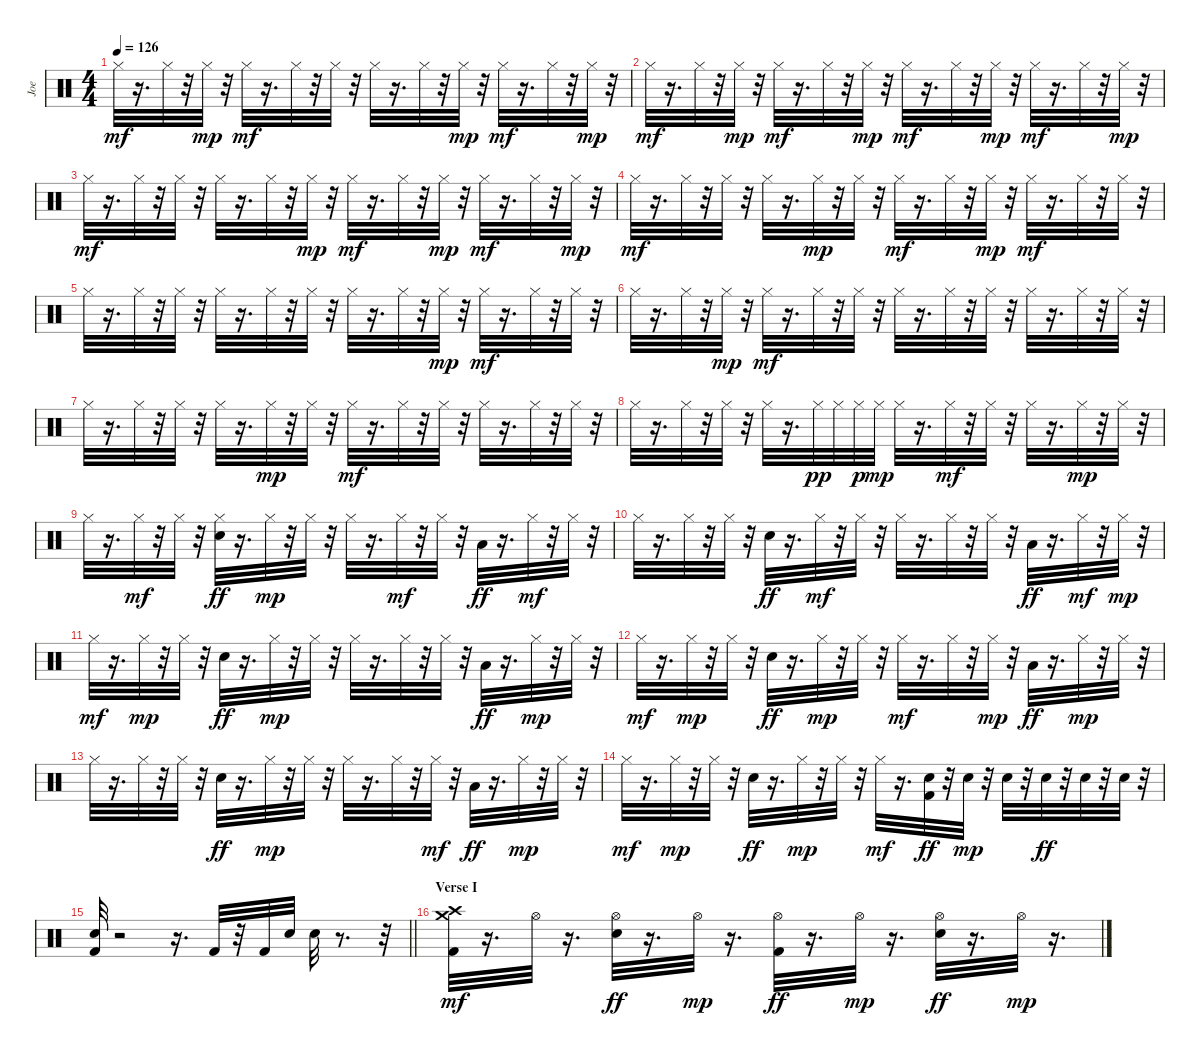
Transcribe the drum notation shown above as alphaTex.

\track ("Joe" "Joe") {instrument percussion}
\staff {score}
\articulation defaults
\ts (4 4)
\tempo 126
\clef neutral
\ks c "Hi-Hat (closed)".32{dy mf}
r.16{d} "Hi-Hat (closed)".32 r.32 "Hi-Hat (closed)".32{dy mp} r.32 "Hi-Hat (closed)".32{dy mf} r.16{d} "Hi-Hat (closed)".32 r.32 "Hi-Hat (closed)".32 r.32 "Hi-Hat (closed)".32 r.16{d} "Hi-Hat (closed)".32 r.32 "Hi-Hat (closed)".32{dy mp} r.32 "Hi-Hat (closed)".32{dy mf} r.16{d} "Hi-Hat (closed)".32 r.32 "Hi-Hat (closed)".32{dy mp} r.32 |
"Hi-Hat (closed)".32{dy mf} r.16{d} "Hi-Hat (closed)".32 r.32 "Hi-Hat (closed)".32{dy mp} r.32 "Hi-Hat (closed)".32{dy mf} r.16{d} "Hi-Hat (closed)".32 r.32 "Hi-Hat (closed)".32{dy mp} r.32 "Hi-Hat (closed)".32{dy mf} r.16{d} "Hi-Hat (closed)".32 r.32 "Hi-Hat (closed)".32{dy mp} r.32 "Hi-Hat (closed)".32{dy mf} r.16{d} "Hi-Hat (closed)".32 r.32 "Hi-Hat (closed)".32{dy mp} r.32 |
"Hi-Hat (closed)".32{dy mf} r.16{d} "Hi-Hat (closed)".32 r.32 "Hi-Hat (closed)".32 r.32 "Hi-Hat (closed)".32 r.16{d} "Hi-Hat (closed)".32 r.32 "Hi-Hat (closed)".32{dy mp} r.32 "Hi-Hat (closed)".32{dy mf} r.16{d} "Hi-Hat (closed)".32 r.32 "Hi-Hat (closed)".32{dy mp} r.32 "Hi-Hat (closed)".32{dy mf} r.16{d} "Hi-Hat (closed)".32 r.32 "Hi-Hat (closed)".32{dy mp} r.32 |
"Hi-Hat (closed)".32{dy mf} r.16{d} "Hi-Hat (closed)".32 r.32 "Hi-Hat (closed)".32 r.32 "Hi-Hat (closed)".32 r.16{d} "Hi-Hat (closed)".32{dy mp} r.32 "Hi-Hat (closed)".32 r.32 "Hi-Hat (closed)".32{dy mf} r.16{d} "Hi-Hat (closed)".32 r.32 "Hi-Hat (closed)".32{dy mp} r.32 "Hi-Hat (closed)".32{dy mf} r.16{d} "Hi-Hat (closed)".32 r.32 "Hi-Hat (closed)".32 r.32 |
"Hi-Hat (closed)".32 r.16{d} "Hi-Hat (closed)".32 r.32 "Hi-Hat (closed)".32 r.32 "Hi-Hat (closed)".32 r.16{d} "Hi-Hat (closed)".32 r.32 "Hi-Hat (closed)".32 r.32 "Hi-Hat (closed)".32 r.16{d} "Hi-Hat (closed)".32 r.32 "Hi-Hat (closed)".32{dy mp} r.32 "Hi-Hat (closed)".32{dy mf} r.16{d} "Hi-Hat (closed)".32 r.32 "Hi-Hat (closed)".32 r.32 |
"Hi-Hat (closed)".32 r.16{d} "Hi-Hat (closed)".32 r.32 "Hi-Hat (closed)".32{dy mp} r.32 "Hi-Hat (closed)".32{dy mf} r.16{d} "Hi-Hat (closed)".32 r.32 "Hi-Hat (closed)".32 r.32 "Hi-Hat (closed)".32 r.16{d} "Hi-Hat (closed)".32 r.32 "Hi-Hat (closed)".32 r.32 "Hi-Hat (closed)".32 r.16{d} "Hi-Hat (closed)".32 r.32 "Hi-Hat (closed)".32 r.32 |
"Hi-Hat (closed)".32 r.16{d} "Hi-Hat (closed)".32 r.32 "Hi-Hat (closed)".32 r.32 "Hi-Hat (closed)".32 r.16{d} "Hi-Hat (closed)".32{dy mp} r.32 "Hi-Hat (closed)".32 r.32 "Hi-Hat (closed)".32{dy mf} r.16{d} "Hi-Hat (closed)".32 r.32 "Hi-Hat (closed)".32 r.32 "Hi-Hat (closed)".32 r.16{d} "Hi-Hat (closed)".32 r.32 "Hi-Hat (closed)".32 r.32 |
"Hi-Hat (closed)".32 r.16{d} "Hi-Hat (closed)".32 r.32 "Hi-Hat (closed)".32 r.32 "Hi-Hat (closed)".32 r.16{d} "Hi-Hat (closed)".32{dy pp} "Hi-Hat (closed)".32 "Hi-Hat (closed)".32{dy p} "Hi-Hat (closed)".32{dy mp} "Hi-Hat (closed)".32 r.16{d} "Hi-Hat (closed)".32{dy mf} r.32 "Hi-Hat (closed)".32 r.32 "Hi-Hat (closed)".32 r.16{d} "Hi-Hat (closed)".32{dy mp} r.32 "Hi-Hat (closed)".32 r.32 |
"Hi-Hat (closed)".32 r.16{d} "Hi-Hat (closed)".32{dy mf} r.32 "Hi-Hat (closed)".32 r.32 ("Hi-Hat (closed)" "Electric Snare (hit)").32{dy ff} r.16{d} "Hi-Hat (closed)".32{dy mp} r.32 "Hi-Hat (closed)".32 r.32 "Hi-Hat (closed)".32 r.16{d} "Hi-Hat (closed)".32{dy mf} r.32 "Hi-Hat (closed)".32 r.32 "Low Floor Tom (hit)".32{dy ff} r.16{d} "Hi-Hat (closed)".32{dy mf} r.32 "Hi-Hat (closed)".32 r.32 |
"Hi-Hat (closed)".32 r.16{d} "Hi-Hat (closed)".32 r.32 "Hi-Hat (closed)".32 r.32 "Electric Snare (hit)".32{dy ff} r.16{d} "Hi-Hat (closed)".32{dy mf} r.32 "Hi-Hat (closed)".32 r.32 "Hi-Hat (closed)".32 r.16{d} "Hi-Hat (closed)".32 r.32 "Hi-Hat (closed)".32 r.32 "Low Floor Tom (hit)".32{dy ff} r.16{d} "Hi-Hat (closed)".32{dy mf} r.32 "Hi-Hat (closed)".32{dy mp} r.32 |
"Hi-Hat (closed)".32{dy mf} r.16{d} "Hi-Hat (closed)".32{dy mp} r.32 "Hi-Hat (closed)".32 r.32 "Electric Snare (hit)".32{dy ff} r.16{d} "Hi-Hat (closed)".32{dy mp} r.32 "Hi-Hat (closed)".32 r.32 "Hi-Hat (closed)".32 r.16{d} "Hi-Hat (closed)".32 r.32 "Hi-Hat (closed)".32 r.32 "Low Floor Tom (hit)".32{dy ff} r.16{d} "Hi-Hat (closed)".32{dy mp} r.32 "Hi-Hat (closed)".32 r.32 |
"Hi-Hat (closed)".32{dy mf} r.16{d} "Hi-Hat (closed)".32{dy mp} r.32 "Hi-Hat (closed)".32 r.32 "Electric Snare (hit)".32{dy ff} r.16{d} "Hi-Hat (closed)".32{dy mp} r.32 "Hi-Hat (closed)".32 r.32 "Hi-Hat (closed)".32{dy mf} r.16{d} "Hi-Hat (closed)".32 r.32 "Hi-Hat (closed)".32{dy mp} r.32 "Low Floor Tom (hit)".32{dy ff} r.16{d} "Hi-Hat (closed)".32{dy mp} r.32 "Hi-Hat (closed)".32 r.32 |
"Hi-Hat (closed)".32 r.16{d} "Hi-Hat (closed)".32 r.32 "Hi-Hat (closed)".32 r.32 "Electric Snare (hit)".32{dy ff} r.16{d} "Hi-Hat (closed)".32{dy mp} r.32 "Hi-Hat (closed)".32 r.32 "Hi-Hat (closed)".32 r.16{d} "Hi-Hat (closed)".32 r.32 "Hi-Hat (closed)".32{dy mf} r.32 "Low Floor Tom (hit)".32{dy ff} r.16{d} "Hi-Hat (closed)".32{dy mp} r.32 "Hi-Hat (closed)".32 r.32 |
"Hi-Hat (closed)".32{dy mf} r.16{d} "Hi-Hat (closed)".32{dy mp} r.32 "Hi-Hat (closed)".32 r.32 "Electric Snare (hit)".32{dy ff} r.16{d} "Hi-Hat (closed)".32{dy mp} r.32 "Hi-Hat (closed)".32 r.32 "Hi-Hat (closed)".32{dy mf} r.16{d} ("Electric Snare (hit)" "Kick (hit) 2").32{dy ff} r.32 "Electric Snare (hit)".32{dy mp} r.32 "Electric Snare (hit)".32 r.32 "Electric Snare (hit)".32{dy ff} r.32 "Electric Snare (hit)".32 r.32 "Electric Snare (hit)".32 r.32 |
\barLineRight lightlight
("Electric Snare (hit)" "Kick (hit) 2").32 r.2 r.16{d} "Kick (hit) 2".32 r.32 "Kick (hit) 2".32 "Electric Snare (hit)".32 "Electric Snare (hit)".32 r.8{d} r.32 |
\section ("" "Verse I")
("Kick (hit) 2" "Crash high (hit)" "Crash medium (hit)").32{dy mf} r.16{d} "Hi-Hat (open)".32 r.16{d} ("Electric Snare (hit)" "Hi-Hat (open)").32{dy ff} r.16{d} "Hi-Hat (open)".32{dy mp} r.16{d} ("Hi-Hat (open)" "Kick (hit) 2").32{dy ff} r.16{d} "Hi-Hat (open)".32{dy mp} r.16{d} ("Hi-Hat (open)" "Electric Snare (hit)").32{dy ff} r.16{d} "Hi-Hat (open)".32{dy mp} r.16{d}
